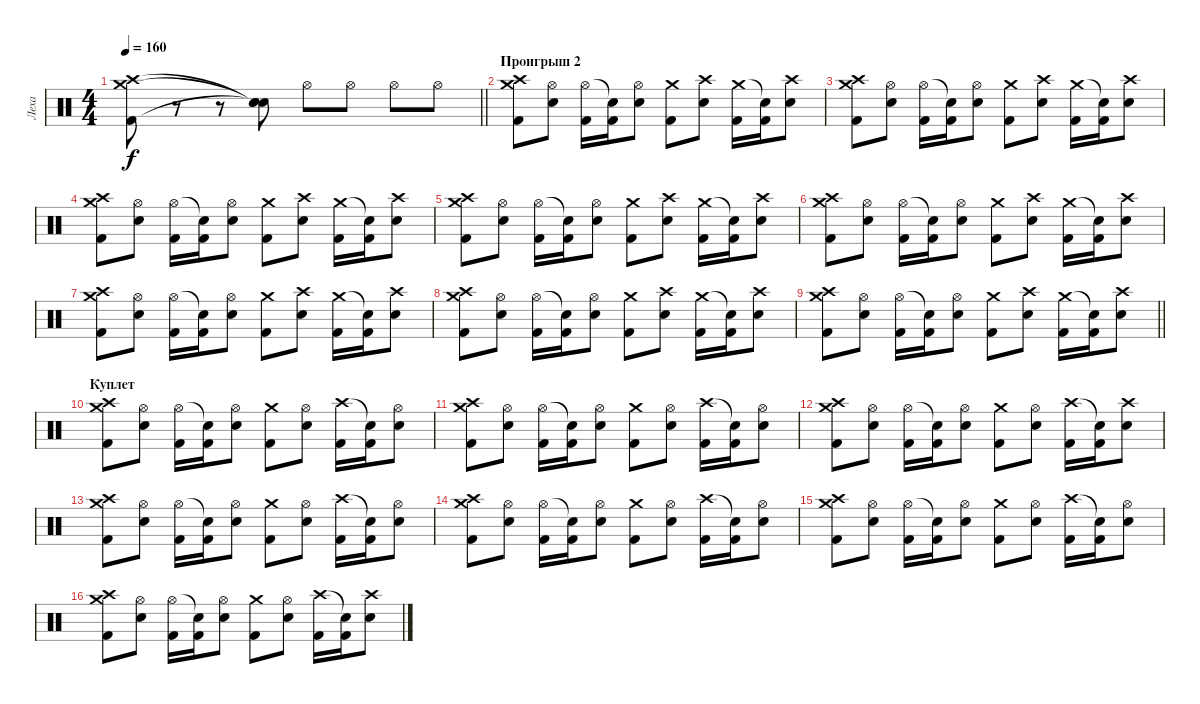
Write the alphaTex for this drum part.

\track ("Леха" "Леха") {instrument percussion}
\staff {score}
\articulation defaults
\ts (4 4)
\tempo 160
\clef neutral
\barLineRight lightlight
\ks c
("Crash medium (hit)" "Crash high (hit)" "Kick (hit) 2").8{dy f} r.8 r.8 ("Snare (hit)"{t} "Snare (hit)"{t} "Snare (hit)"{t}).8 "Hi-Hat (open)".8 "Hi-Hat (open)".8 "Hi-Hat (open)".8 "Hi-Hat (open)".8 |
\section ("" "Проигрыш 2")
("Crash medium (hit)" "Crash high (hit)" "Kick (hit) 2").8 ("Hi-Hat (open)" "Snare (hit) 2").8 ("Hi-Hat (open)" "Kick (hit) 2").16 ("Snare (hit)"{t} "Kick (hit) 2").16 ("Hi-Hat (open)" "Snare (hit) 2").8 ("Crash medium (hit)" "Kick (hit) 2").8 ("Crash high (hit)" "Snare (hit) 2").8 ("Crash medium (hit)" "Kick (hit) 2").16 ("Snare (hit)"{t} "Kick (hit) 2").16 ("Crash high (hit)" "Snare (hit) 2").8 |
("Crash medium (hit)" "Crash high (hit)" "Kick (hit) 2").8 ("Hi-Hat (open)" "Snare (hit) 2").8 ("Hi-Hat (open)" "Kick (hit) 2").16 ("Snare (hit)"{t} "Kick (hit) 2").16 ("Hi-Hat (open)" "Snare (hit) 2").8 ("Crash medium (hit)" "Kick (hit) 2").8 ("Crash high (hit)" "Snare (hit) 2").8 ("Crash medium (hit)" "Kick (hit) 2").16 ("Snare (hit)"{t} "Kick (hit) 2").16 ("Crash high (hit)" "Snare (hit) 2").8 |
("Crash medium (hit)" "Crash high (hit)" "Kick (hit) 2").8 ("Hi-Hat (open)" "Snare (hit) 2").8 ("Hi-Hat (open)" "Kick (hit) 2").16 ("Snare (hit)"{t} "Kick (hit) 2").16 ("Hi-Hat (open)" "Snare (hit) 2").8 ("Crash medium (hit)" "Kick (hit) 2").8 ("Crash high (hit)" "Snare (hit) 2").8 ("Crash medium (hit)" "Kick (hit) 2").16 ("Snare (hit)"{t} "Kick (hit) 2").16 ("Crash high (hit)" "Snare (hit) 2").8 |
("Crash medium (hit)" "Crash high (hit)" "Kick (hit) 2").8 ("Hi-Hat (open)" "Snare (hit) 2").8 ("Hi-Hat (open)" "Kick (hit) 2").16 ("Snare (hit)"{t} "Kick (hit) 2").16 ("Hi-Hat (open)" "Snare (hit) 2").8 ("Crash medium (hit)" "Kick (hit) 2").8 ("Crash high (hit)" "Snare (hit) 2").8 ("Crash medium (hit)" "Kick (hit) 2").16 ("Snare (hit)"{t} "Kick (hit) 2").16 ("Crash high (hit)" "Snare (hit) 2").8 |
("Crash medium (hit)" "Crash high (hit)" "Kick (hit) 2").8 ("Hi-Hat (open)" "Snare (hit) 2").8 ("Hi-Hat (open)" "Kick (hit) 2").16 ("Snare (hit)"{t} "Kick (hit) 2").16 ("Hi-Hat (open)" "Snare (hit) 2").8 ("Crash medium (hit)" "Kick (hit) 2").8 ("Crash high (hit)" "Snare (hit) 2").8 ("Crash medium (hit)" "Kick (hit) 2").16 ("Snare (hit)"{t} "Kick (hit) 2").16 ("Crash high (hit)" "Snare (hit) 2").8 |
("Crash medium (hit)" "Crash high (hit)" "Kick (hit) 2").8 ("Hi-Hat (open)" "Snare (hit) 2").8 ("Hi-Hat (open)" "Kick (hit) 2").16 ("Snare (hit)"{t} "Kick (hit) 2").16 ("Hi-Hat (open)" "Snare (hit) 2").8 ("Crash medium (hit)" "Kick (hit) 2").8 ("Crash high (hit)" "Snare (hit) 2").8 ("Crash medium (hit)" "Kick (hit) 2").16 ("Snare (hit)"{t} "Kick (hit) 2").16 ("Crash high (hit)" "Snare (hit) 2").8 |
("Crash medium (hit)" "Crash high (hit)" "Kick (hit) 2").8 ("Hi-Hat (open)" "Snare (hit) 2").8 ("Hi-Hat (open)" "Kick (hit) 2").16 ("Snare (hit)"{t} "Kick (hit) 2").16 ("Hi-Hat (open)" "Snare (hit) 2").8 ("Crash medium (hit)" "Kick (hit) 2").8 ("Crash high (hit)" "Snare (hit) 2").8 ("Crash medium (hit)" "Kick (hit) 2").16 ("Snare (hit)"{t} "Kick (hit) 2").16 ("Crash high (hit)" "Snare (hit) 2").8 |
\barLineRight lightlight
("Crash medium (hit)" "Crash high (hit)" "Kick (hit) 2").8 ("Hi-Hat (open)" "Snare (hit) 2").8 ("Hi-Hat (open)" "Kick (hit) 2").16 ("Snare (hit)"{t} "Kick (hit) 2").16 ("Hi-Hat (open)" "Snare (hit) 2").8 ("Crash medium (hit)" "Kick (hit) 2").8 ("Crash high (hit)" "Snare (hit) 2").8 ("Crash medium (hit)" "Kick (hit) 2").16 ("Snare (hit)"{t} "Kick (hit) 2").16 ("Crash high (hit)" "Snare (hit) 2").8 |
\section ("" "Куплет")
("Crash medium (hit)" "Crash high (hit)" "Kick (hit) 2").8 ("Hi-Hat (open)" "Snare (hit) 2").8 ("Hi-Hat (open)" "Kick (hit) 2").16 ("Snare (hit)"{t} "Kick (hit) 2").16 ("Hi-Hat (open)" "Snare (hit) 2").8 ("Crash medium (hit)" "Kick (hit) 2").8 ("Hi-Hat (open)" "Snare (hit) 2").8 ("Crash high (hit)" "Kick (hit) 2").16 ("Snare (hit)"{t} "Kick (hit) 2").16 ("Hi-Hat (open)" "Snare (hit) 2").8 |
("Crash medium (hit)" "Crash high (hit)" "Kick (hit) 2").8 ("Hi-Hat (open)" "Snare (hit) 2").8 ("Hi-Hat (open)" "Kick (hit) 2").16 ("Snare (hit)"{t} "Kick (hit) 2").16 ("Hi-Hat (open)" "Snare (hit) 2").8 ("Crash medium (hit)" "Kick (hit) 2").8 ("Hi-Hat (open)" "Snare (hit) 2").8 ("Crash high (hit)" "Kick (hit) 2").16 ("Snare (hit)"{t} "Kick (hit) 2").16 ("Hi-Hat (open)" "Snare (hit) 2").8 |
("Crash medium (hit)" "Crash high (hit)" "Kick (hit) 2").8 ("Hi-Hat (open)" "Snare (hit) 2").8 ("Hi-Hat (open)" "Kick (hit) 2").16 ("Snare (hit)"{t} "Kick (hit) 2").16 ("Hi-Hat (open)" "Snare (hit) 2").8 ("Crash medium (hit)" "Kick (hit) 2").8 ("Hi-Hat (open)" "Snare (hit) 2").8 ("Crash high (hit)" "Kick (hit) 2").16 ("Snare (hit)"{t} "Kick (hit) 2").16 ("Crash high (hit)" "Snare (hit) 2").8 |
("Crash medium (hit)" "Crash high (hit)" "Kick (hit) 2").8 ("Hi-Hat (open)" "Snare (hit) 2").8 ("Hi-Hat (open)" "Kick (hit) 2").16 ("Snare (hit)"{t} "Kick (hit) 2").16 ("Hi-Hat (open)" "Snare (hit) 2").8 ("Crash medium (hit)" "Kick (hit) 2").8 ("Hi-Hat (open)" "Snare (hit) 2").8 ("Crash high (hit)" "Kick (hit) 2").16 ("Snare (hit)"{t} "Kick (hit) 2").16 ("Hi-Hat (open)" "Snare (hit) 2").8 |
("Crash medium (hit)" "Crash high (hit)" "Kick (hit) 2").8 ("Hi-Hat (open)" "Snare (hit) 2").8 ("Hi-Hat (open)" "Kick (hit) 2").16 ("Snare (hit)"{t} "Kick (hit) 2").16 ("Hi-Hat (open)" "Snare (hit) 2").8 ("Crash medium (hit)" "Kick (hit) 2").8 ("Hi-Hat (open)" "Snare (hit) 2").8 ("Crash high (hit)" "Kick (hit) 2").16 ("Snare (hit)"{t} "Kick (hit) 2").16 ("Hi-Hat (open)" "Snare (hit) 2").8 |
("Crash medium (hit)" "Crash high (hit)" "Kick (hit) 2").8 ("Hi-Hat (open)" "Snare (hit) 2").8 ("Hi-Hat (open)" "Kick (hit) 2").16 ("Snare (hit)"{t} "Kick (hit) 2").16 ("Hi-Hat (open)" "Snare (hit) 2").8 ("Crash medium (hit)" "Kick (hit) 2").8 ("Hi-Hat (open)" "Snare (hit) 2").8 ("Crash high (hit)" "Kick (hit) 2").16 ("Snare (hit)"{t} "Kick (hit) 2").16 ("Hi-Hat (open)" "Snare (hit) 2").8 |
("Crash medium (hit)" "Crash high (hit)" "Kick (hit) 2").8 ("Hi-Hat (open)" "Snare (hit) 2").8 ("Hi-Hat (open)" "Kick (hit) 2").16 ("Snare (hit)"{t} "Kick (hit) 2").16 ("Hi-Hat (open)" "Snare (hit) 2").8 ("Crash medium (hit)" "Kick (hit) 2").8 ("Hi-Hat (open)" "Snare (hit) 2").8 ("Crash high (hit)" "Kick (hit) 2").16 ("Snare (hit)"{t} "Kick (hit) 2").16 ("Crash high (hit)" "Snare (hit) 2").8
